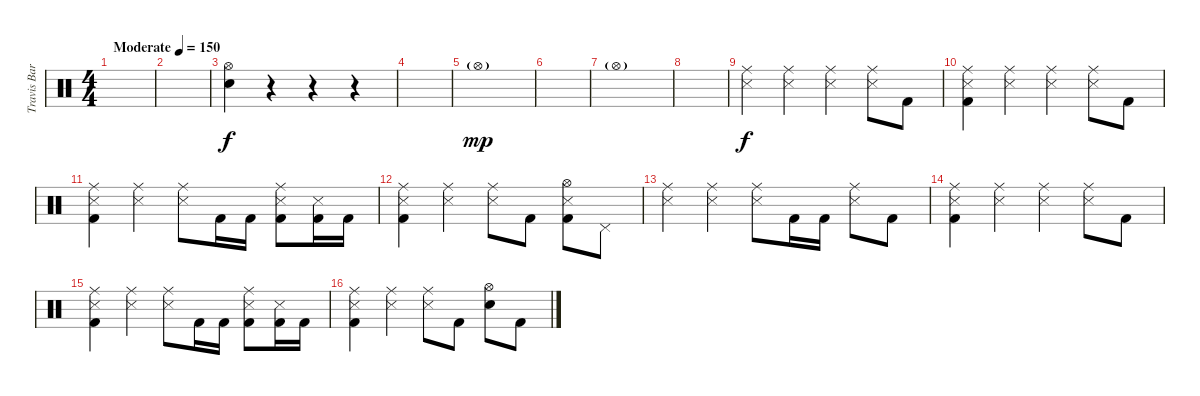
\track ("Travis Barker - Drums" "Travis Bar") {instrument percussion}
\staff {score}
\articulation defaults
\ts (4 4)
\tempo (150 "Moderate")
\clef neutral
\ks c
|
|
("Electric Snare (hit)" "Hi-Hat (open)").4 r.4 r.4 r.4 |
|
"Hi-Hat (open)"{g}.1{dy mp} |
|
"Hi-Hat (open)"{g}.1 |
|
("Ride (middle)" "Snare (side stick) 3").4{dy f} ("Ride (middle)" "Snare (side stick) 3").4 ("Ride (middle)" "Snare (side stick) 3").4 ("Ride (middle)" "Snare (side stick) 3").8 "Kick (hit) 2".8 |
("Ride (middle)" "Snare (side stick) 3" "Kick (hit) 2").4 ("Ride (middle)" "Snare (side stick) 3").4 ("Ride (middle)" "Snare (side stick) 3").4 ("Ride (middle)" "Snare (side stick) 3").8 "Kick (hit) 2".8 |
("Ride (middle)" "Snare (side stick) 3" "Kick (hit) 2").4 ("Ride (middle)" "Snare (side stick) 3").4 ("Ride (middle)" "Snare (side stick) 3").8 "Kick (hit) 2".16 "Kick (hit) 2".16 ("Ride (middle)" "Snare (side stick) 3" "Kick (hit) 2").8 ("Snare (side stick) 3" "Kick (hit) 2").16 "Kick (hit) 2".16 |
("Ride (middle)" "Snare (side stick) 3" "Kick (hit) 2").4 ("Ride (middle)" "Snare (side stick) 3").4 ("Ride (middle)" "Snare (side stick) 3").8 "Kick (hit) 2".8 ("Hi-Hat (open)" "Snare (side stick) 3" "Kick (hit) 2").8 "Pedal Hi-Hat (hit)".8 |
("Ride (middle)" "Snare (side stick) 3").4 ("Ride (middle)" "Snare (side stick) 3").4 ("Ride (middle)" "Snare (side stick) 3").8 "Kick (hit) 2".16 "Kick (hit) 2".16 ("Ride (middle)" "Snare (side stick) 3").8 "Kick (hit) 2".8 |
("Ride (middle)" "Snare (side stick) 3" "Kick (hit) 2").4 ("Ride (middle)" "Snare (side stick) 3").4 ("Ride (middle)" "Snare (side stick) 3").4 ("Ride (middle)" "Snare (side stick) 3").8 "Kick (hit) 2".8 |
("Ride (middle)" "Snare (side stick) 3" "Kick (hit) 2").4 ("Ride (middle)" "Snare (side stick) 3").4 ("Ride (middle)" "Snare (side stick) 3").8 "Kick (hit) 2".16 "Kick (hit) 2".16 ("Ride (middle)" "Snare (side stick) 3" "Kick (hit) 2").8 ("Snare (side stick) 3" "Kick (hit) 2").16 "Kick (hit) 2".16 |
("Ride (middle)" "Snare (side stick) 3" "Kick (hit) 2").4 ("Ride (middle)" "Snare (side stick) 3").4 ("Ride (middle)" "Snare (side stick) 3").8 "Kick (hit) 2".8 ("Hi-Hat (open)" "Electric Snare (hit)").8 "Kick (hit) 2".8
